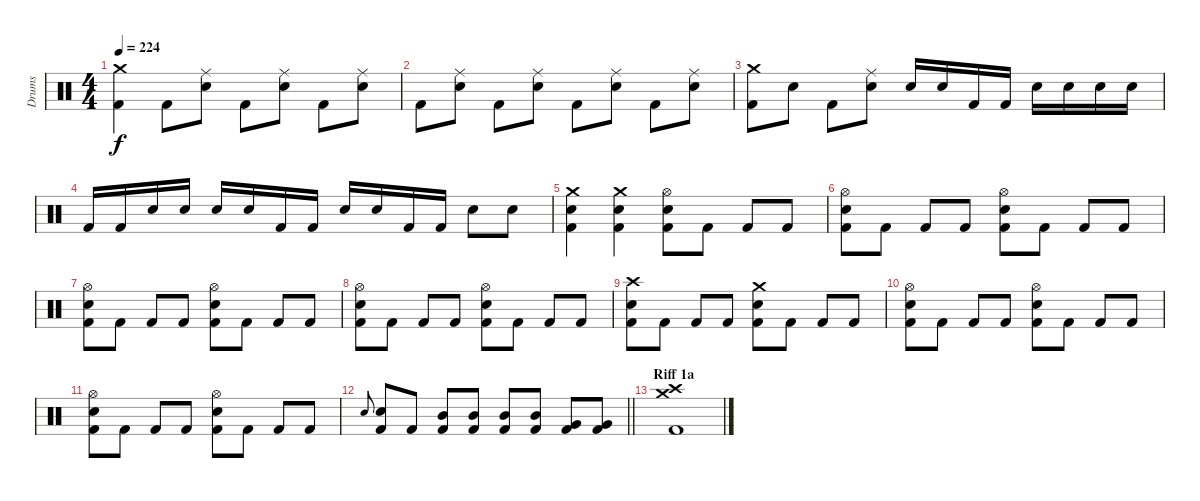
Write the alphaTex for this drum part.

\track ("Drums" "Drums") {instrument percussion}
\staff {score}
\articulation defaults
\ts (4 4)
\tempo 224
\clef neutral
\ks c
("Crash medium (hit)" "Kick (hit) 2").4{dy f} "Kick (hit) 2".8 ("Ride (middle)" "Electric Snare (hit)").8 "Kick (hit) 2".8 ("Ride (middle)" "Electric Snare (hit)").8 "Kick (hit) 2".8 ("Ride (middle)" "Electric Snare (hit)").8 |
"Kick (hit) 2".8 ("Ride (middle)" "Electric Snare (hit)").8 "Kick (hit) 2".8 ("Ride (middle)" "Electric Snare (hit)").8 "Kick (hit) 2".8 ("Ride (middle)" "Electric Snare (hit)").8 "Kick (hit) 2".8 ("Ride (middle)" "Electric Snare (hit)").8 |
("Crash medium (hit)" "Kick (hit) 2").8 "Electric Snare (hit)".8 "Kick (hit) 2".8 ("Ride (middle)" "Electric Snare (hit)").8 "Electric Snare (hit)".16 "Electric Snare (hit)".16 "Kick (hit) 2".16 "Kick (hit) 2".16 "Electric Snare (hit)".16 "Electric Snare (hit)".16 "Electric Snare (hit)".16 "Electric Snare (hit)".16 |
"Kick (hit) 2".16 "Kick (hit) 2".16 "Electric Snare (hit)".16 "Electric Snare (hit)".16 "Electric Snare (hit)".16 "Electric Snare (hit)".16 "Kick (hit) 2".16 "Kick (hit) 2".16 "Electric Snare (hit)".16 "Electric Snare (hit)".16 "Kick (hit) 2".16 "Kick (hit) 2".16 "Electric Snare (hit)".8 "Electric Snare (hit)".8 |
("Electric Snare (hit)" "Kick (hit) 2" "Crash medium (hit)").4 ("Crash medium (hit)" "Electric Snare (hit)" "Kick (hit) 2").4 ("Kick (hit) 2" "Hi-Hat (open)" "Electric Snare (hit)").8 "Kick (hit) 2".8 "Kick (hit) 2".8 "Kick (hit) 2".8 |
("Kick (hit) 2" "Hi-Hat (open)" "Electric Snare (hit)").8 "Kick (hit) 2".8 "Kick (hit) 2".8 "Kick (hit) 2".8 ("Kick (hit) 2" "Hi-Hat (open)" "Electric Snare (hit)").8 "Kick (hit) 2".8 "Kick (hit) 2".8 "Kick (hit) 2".8 |
("Kick (hit) 2" "Hi-Hat (open)" "Electric Snare (hit)").8 "Kick (hit) 2".8 "Kick (hit) 2".8 "Kick (hit) 2".8 ("Kick (hit) 2" "Hi-Hat (open)" "Electric Snare (hit)").8 "Kick (hit) 2".8 "Kick (hit) 2".8 "Kick (hit) 2".8 |
("Kick (hit) 2" "Hi-Hat (open)" "Electric Snare (hit)").8 "Kick (hit) 2".8 "Kick (hit) 2".8 "Kick (hit) 2".8 ("Kick (hit) 2" "Hi-Hat (open)" "Electric Snare (hit)").8 "Kick (hit) 2".8 "Kick (hit) 2".8 "Kick (hit) 2".8 |
("Kick (hit) 2" "Crash high (hit)" "Electric Snare (hit)").8 "Kick (hit) 2".8 "Kick (hit) 2".8 "Kick (hit) 2".8 ("Kick (hit) 2" "Crash medium (hit)" "Electric Snare (hit)").8 "Kick (hit) 2".8 "Kick (hit) 2".8 "Kick (hit) 2".8 |
("Kick (hit) 2" "Hi-Hat (open)" "Electric Snare (hit)").8 "Kick (hit) 2".8 "Kick (hit) 2".8 "Kick (hit) 2".8 ("Kick (hit) 2" "Hi-Hat (open)" "Electric Snare (hit)").8 "Kick (hit) 2".8 "Kick (hit) 2".8 "Kick (hit) 2".8 |
("Kick (hit) 2" "Hi-Hat (open)" "Electric Snare (hit)").8 "Kick (hit) 2".8 "Kick (hit) 2".8 "Kick (hit) 2".8 ("Kick (hit) 2" "Hi-Hat (open)" "Electric Snare (hit)").8 "Kick (hit) 2".8 "Kick (hit) 2".8 "Kick (hit) 2".8 |
\barLineRight lightlight "Electric Snare (hit)".8{gr onbeat}
("Kick (hit) 2" "Electric Snare (hit)").8 "Kick (hit) 2".8 ("Mid Tom (hit)" "Kick (hit) 2").8 ("Mid Tom (hit)" "Kick (hit) 2").8 ("Kick (hit) 2" "Mid Tom (hit)").8 ("Mid Tom (hit)" "Kick (hit) 2").8 ("Very Low Tom (hit)" "Kick (hit) 2").8 ("Kick (hit) 2" "Very Low Tom (hit)").8 |
\section ("" "Riff 1a")
("Crash high (hit)" "Crash medium (hit)" "Kick (hit) 2").1
